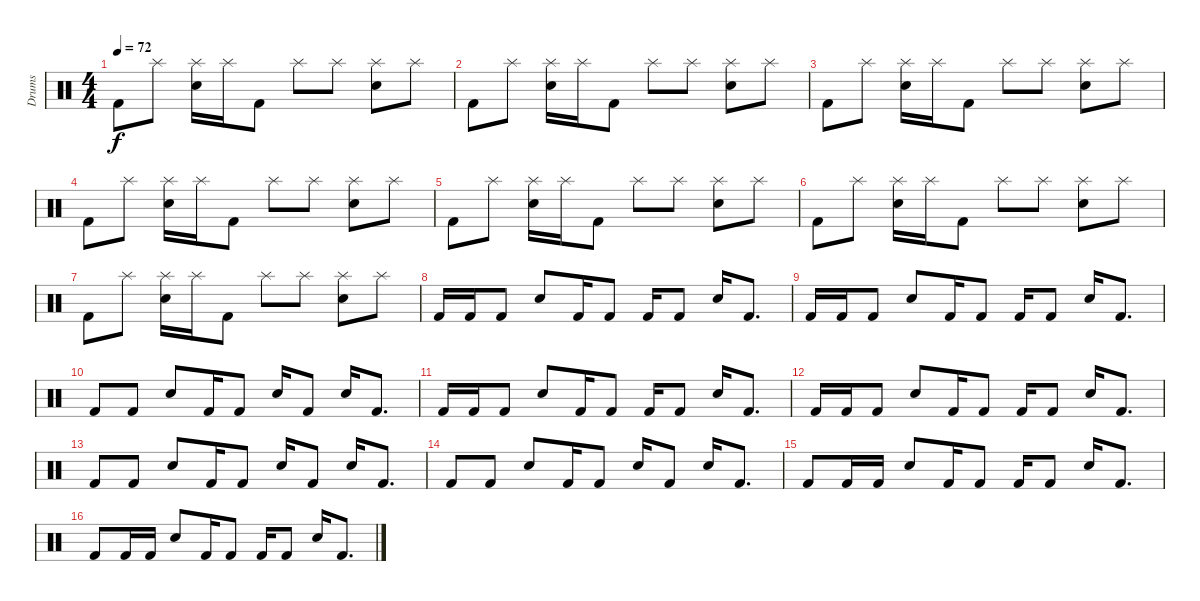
\track ("Drums" "Drums") {instrument percussion}
\staff {score}
\articulation defaults
\ts (4 4)
\tempo 72
\clef neutral
\ks c "Kick (hit) 2".8{dy f} "Splash (hit)".8
("Snare (hit) 2" "Splash (hit)").16 "Splash (hit)".16 "Kick (hit) 2".8 "Splash (hit)".8 "Splash (hit)".8 ("Splash (hit)" "Snare (hit) 2").8 "Splash (hit)".8 |
"Kick (hit) 2".8 "Splash (hit)".8 ("Snare (hit) 2" "Splash (hit)").16 "Splash (hit)".16 "Kick (hit) 2".8 "Splash (hit)".8 "Splash (hit)".8 ("Splash (hit)" "Snare (hit) 2").8 "Splash (hit)".8 |
"Kick (hit) 2".8 "Splash (hit)".8 ("Snare (hit) 2" "Splash (hit)").16 "Splash (hit)".16 "Kick (hit) 2".8 "Splash (hit)".8 "Splash (hit)".8 ("Splash (hit)" "Snare (hit) 2").8 "Splash (hit)".8 |
"Kick (hit) 2".8 "Splash (hit)".8 ("Snare (hit) 2" "Splash (hit)").16 "Splash (hit)".16 "Kick (hit) 2".8 "Splash (hit)".8 "Splash (hit)".8 ("Splash (hit)" "Snare (hit) 2").8 "Splash (hit)".8 |
"Kick (hit) 2".8 "Splash (hit)".8 ("Snare (hit) 2" "Splash (hit)").16 "Splash (hit)".16 "Kick (hit) 2".8 "Splash (hit)".8 "Splash (hit)".8 ("Splash (hit)" "Snare (hit) 2").8 "Splash (hit)".8 |
"Kick (hit) 2".8 "Splash (hit)".8 ("Snare (hit) 2" "Splash (hit)").16 "Splash (hit)".16 "Kick (hit) 2".8 "Splash (hit)".8 "Splash (hit)".8 ("Splash (hit)" "Snare (hit) 2").8 "Splash (hit)".8 |
"Kick (hit) 2".8 "Splash (hit)".8 ("Snare (hit) 2" "Splash (hit)").16 "Splash (hit)".16 "Kick (hit) 2".8 "Splash (hit)".8 "Splash (hit)".8 ("Splash (hit)" "Snare (hit) 2").8 "Splash (hit)".8 |
"Kick (hit) 2".16{volume 16} "Kick (hit) 2".16 "Kick (hit) 2".8 "Snare (hit) 2".8 "Kick (hit) 2".16 "Kick (hit) 2".8 "Kick (hit) 2".16 "Kick (hit) 2".8 "Snare (hit) 2".16 "Kick (hit) 2".8{d} |
"Kick (hit) 2".16 "Kick (hit) 2".16 "Kick (hit) 2".8 "Snare (hit) 2".8 "Kick (hit) 2".16 "Kick (hit) 2".8 "Kick (hit) 2".16 "Kick (hit) 2".8 "Snare (hit) 2".16 "Kick (hit) 2".8{d} |
"Kick (hit) 2".8 "Kick (hit) 2".8 "Snare (hit) 2".8 "Kick (hit) 2".16 "Kick (hit) 2".8 "Snare (hit) 2".16 "Kick (hit) 2".8 "Snare (hit) 2".16 "Kick (hit) 2".8{d} |
"Kick (hit) 2".16 "Kick (hit) 2".16 "Kick (hit) 2".8 "Snare (hit) 2".8 "Kick (hit) 2".16 "Kick (hit) 2".8 "Kick (hit) 2".16 "Kick (hit) 2".8 "Snare (hit) 2".16 "Kick (hit) 2".8{d} |
"Kick (hit) 2".16 "Kick (hit) 2".16 "Kick (hit) 2".8 "Snare (hit) 2".8 "Kick (hit) 2".16 "Kick (hit) 2".8 "Kick (hit) 2".16 "Kick (hit) 2".8 "Snare (hit) 2".16 "Kick (hit) 2".8{d} |
"Kick (hit) 2".8 "Kick (hit) 2".8 "Snare (hit) 2".8 "Kick (hit) 2".16 "Kick (hit) 2".8 "Snare (hit) 2".16 "Kick (hit) 2".8 "Snare (hit) 2".16 "Kick (hit) 2".8{d} |
"Kick (hit) 2".8 "Kick (hit) 2".8 "Snare (hit) 2".8 "Kick (hit) 2".16 "Kick (hit) 2".8 "Snare (hit) 2".16 "Kick (hit) 2".8 "Snare (hit) 2".16 "Kick (hit) 2".8{d} |
"Kick (hit) 2".8{volume 16} "Kick (hit) 2".16 "Kick (hit) 2".16 "Snare (hit) 2".8 "Kick (hit) 2".16 "Kick (hit) 2".8 "Kick (hit) 2".16 "Kick (hit) 2".8 "Snare (hit) 2".16 "Kick (hit) 2".8{d} |
"Kick (hit) 2".8 "Kick (hit) 2".16 "Kick (hit) 2".16 "Snare (hit) 2".8 "Kick (hit) 2".16 "Kick (hit) 2".8 "Kick (hit) 2".16 "Kick (hit) 2".8 "Snare (hit) 2".16 "Kick (hit) 2".8{d}
